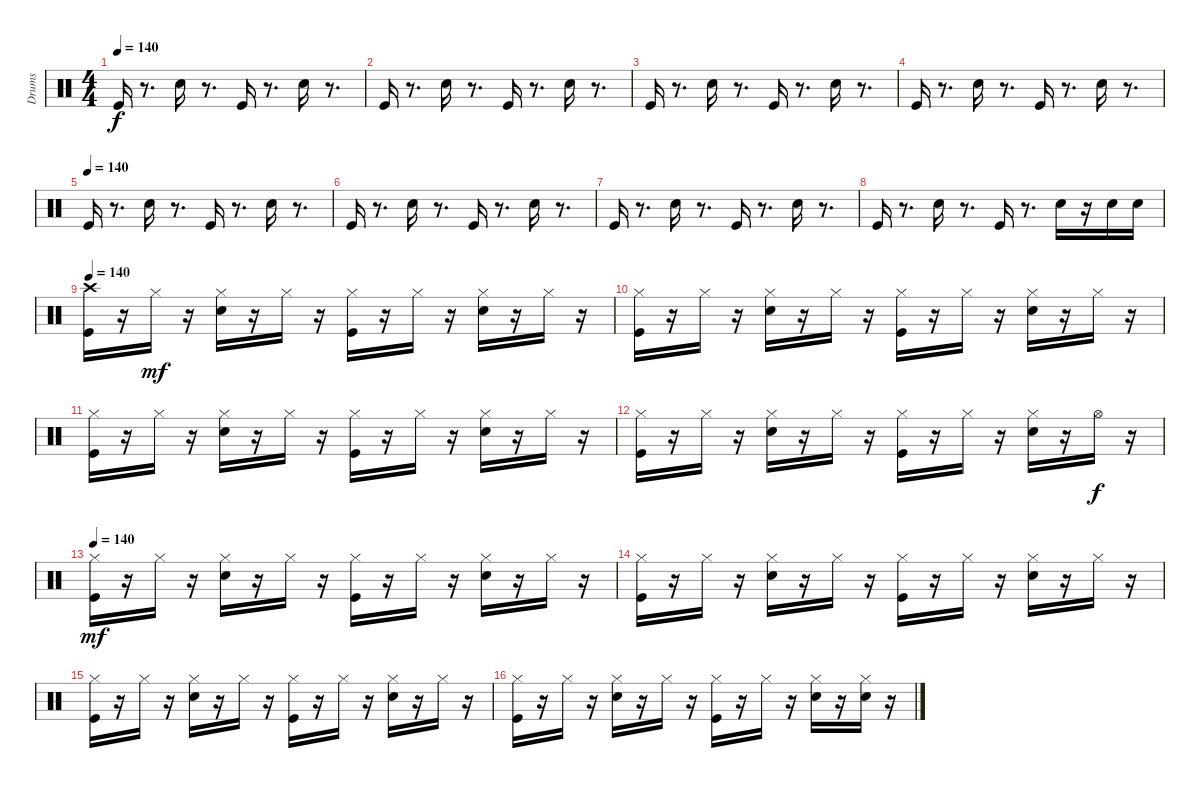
\track ("Drums" "Drums") {instrument percussion}
\staff {score}
\articulation defaults
\ts (4 4)
\tempo 140
\clef neutral
\ks c "Kick (hit)".16{dy f}
r.8{d} "Snare (hit) 2".16 r.8{d} "Kick (hit)".16 r.8{d} "Snare (hit) 2".16 r.8{d} |
"Kick (hit)".16 r.8{d} "Snare (hit) 2".16 r.8{d} "Kick (hit)".16 r.8{d} "Snare (hit) 2".16 r.8{d} |
"Kick (hit)".16 r.8{d} "Snare (hit) 2".16 r.8{d} "Kick (hit)".16 r.8{d} "Snare (hit) 2".16 r.8{d} |
"Kick (hit)".16 r.8{d} "Snare (hit) 2".16 r.8{d} "Kick (hit)".16 r.8{d} "Snare (hit) 2".16 r.8{d} |
\tempo (140)
"Kick (hit)".16 r.8{d} "Snare (hit) 2".16 r.8{d} "Kick (hit)".16 r.8{d} "Snare (hit) 2".16 r.8{d} |
"Kick (hit)".16 r.8{d} "Snare (hit) 2".16 r.8{d} "Kick (hit)".16 r.8{d} "Snare (hit) 2".16 r.8{d} |
"Kick (hit)".16 r.8{d} "Snare (hit) 2".16 r.8{d} "Kick (hit)".16 r.8{d} "Snare (hit) 2".16 r.8{d} |
"Kick (hit)".16 r.8{d} "Snare (hit) 2".16 r.8{d} "Kick (hit)".16 r.8{d} "Snare (hit) 2".16 r.16 "Snare (hit) 2".16 "Snare (hit) 2".16 |
\tempo 140
("Crash high (hit)" "Kick (hit)").16 r.16 "Hi-Hat (closed)".16{dy mf} r.16 ("Snare (hit) 2" "Hi-Hat (closed)").16 r.16 "Hi-Hat (closed)".16 r.16 ("Kick (hit)" "Hi-Hat (closed)").16 r.16 "Hi-Hat (closed)".16 r.16 ("Snare (hit) 2" "Hi-Hat (closed)").16 r.16 "Hi-Hat (closed)".16 r.16 |
("Kick (hit)" "Hi-Hat (closed)").16 r.16 "Hi-Hat (closed)".16 r.16 ("Snare (hit) 2" "Hi-Hat (closed)").16 r.16 "Hi-Hat (closed)".16 r.16 ("Kick (hit)" "Hi-Hat (closed)").16 r.16 "Hi-Hat (closed)".16 r.16 ("Snare (hit) 2" "Hi-Hat (closed)").16 r.16 "Hi-Hat (closed)".16 r.16 |
("Hi-Hat (closed)" "Kick (hit)").16 r.16 "Hi-Hat (closed)".16 r.16 ("Hi-Hat (closed)" "Snare (hit) 2").16 r.16 "Hi-Hat (closed)".16 r.16 ("Hi-Hat (closed)" "Kick (hit)").16 r.16 "Hi-Hat (closed)".16 r.16 ("Hi-Hat (closed)" "Snare (hit) 2").16 r.16 "Hi-Hat (closed)".16 r.16 |
("Hi-Hat (closed)" "Kick (hit)").16 r.16 "Hi-Hat (closed)".16 r.16 ("Hi-Hat (closed)" "Snare (hit) 2").16 r.16 "Hi-Hat (closed)".16 r.16 ("Hi-Hat (closed)" "Kick (hit)").16 r.16 "Hi-Hat (closed)".16 r.16 ("Snare (hit) 2" "Hi-Hat (closed)").16 r.16 "Hi-Hat (open)".16{dy f} r.16 |
\tempo 140
("Kick (hit)" "Hi-Hat (closed)").16{dy mf} r.16 "Hi-Hat (closed)".16 r.16 ("Snare (hit) 2" "Hi-Hat (closed)").16 r.16 "Hi-Hat (closed)".16 r.16 ("Kick (hit)" "Hi-Hat (closed)").16 r.16 "Hi-Hat (closed)".16 r.16 ("Snare (hit) 2" "Hi-Hat (closed)").16 r.16 "Hi-Hat (closed)".16 r.16 |
("Kick (hit)" "Hi-Hat (closed)").16 r.16 "Hi-Hat (closed)".16 r.16 ("Hi-Hat (closed)" "Snare (hit) 2").16 r.16 "Hi-Hat (closed)".16 r.16 ("Hi-Hat (closed)" "Kick (hit)").16 r.16 "Hi-Hat (closed)".16 r.16 ("Snare (hit) 2" "Hi-Hat (closed)").16 r.16 "Hi-Hat (closed)".16 r.16 |
("Kick (hit)" "Hi-Hat (closed)").16 r.16 "Hi-Hat (closed)".16 r.16 ("Hi-Hat (closed)" "Snare (hit) 2").16 r.16 "Hi-Hat (closed)".16 r.16 ("Hi-Hat (closed)" "Kick (hit)").16 r.16 "Hi-Hat (closed)".16 r.16 ("Hi-Hat (closed)" "Snare (hit) 2").16 r.16 "Hi-Hat (closed)".16 r.16 |
("Hi-Hat (closed)" "Kick (hit)").16 r.16 "Hi-Hat (closed)".16 r.16 ("Hi-Hat (closed)" "Snare (hit) 2").16 r.16 "Hi-Hat (closed)".16 r.16 ("Hi-Hat (closed)" "Kick (hit)").16 r.16 "Hi-Hat (closed)".16 r.16 ("Hi-Hat (closed)" "Snare (hit) 2").16 r.16 ("Hi-Hat (closed)" "Snare (hit) 2").16 r.16
